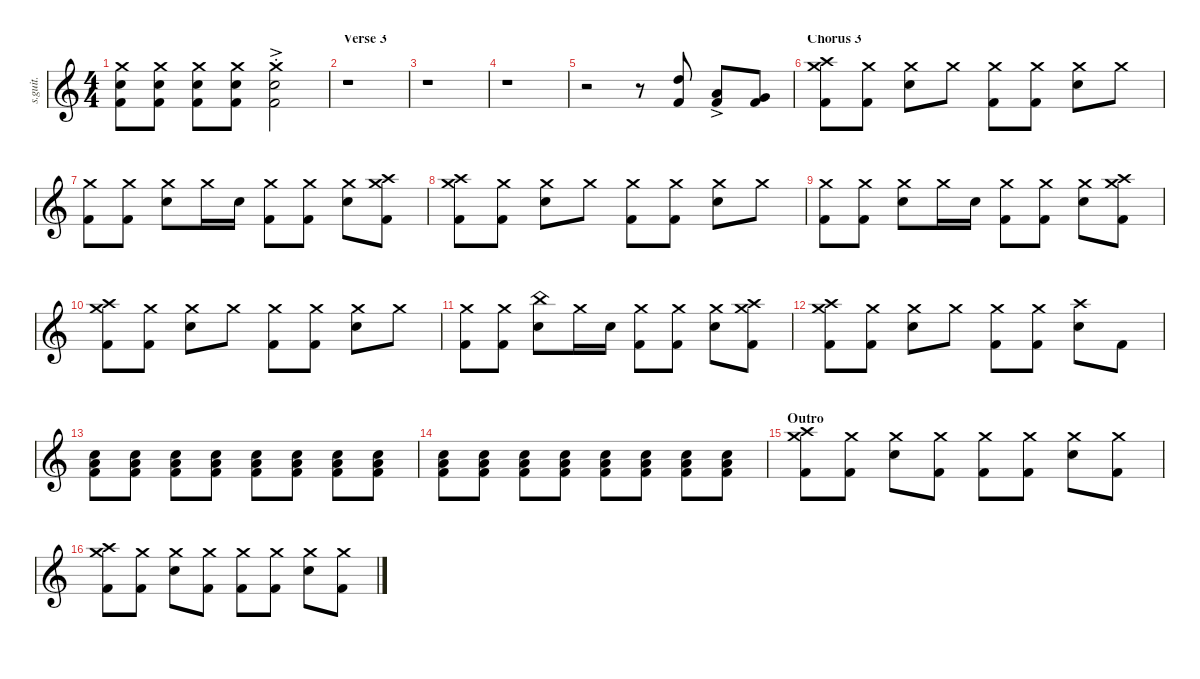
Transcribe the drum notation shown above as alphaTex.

\defaultSystemsLayout 4
\hideDynamics
\bracketExtendMode nobrackets
\track ("Tre Cool" "s.guit.") {instrument percussion}
\staff {score}
\articulation defaults
\ts (4 4)
\tempo (84 hide)
\clef g2
\ks c
("Crash medium (hit)" "Snare (hit) 2" "Kick (hit) 2").8{lyrics (0 "") lyrics (1 "") lyrics (2 "") lyrics (3 "") lyrics (4 "") dy f} ("Crash medium (hit)" "Snare (hit) 2" "Kick (hit) 2").8{lyrics (0 "") lyrics (1 "") lyrics (2 "") lyrics (3 "") lyrics (4 "")} ("Crash medium (hit)" "Snare (hit) 2" "Kick (hit) 2").8{lyrics (0 "") lyrics (1 "") lyrics (2 "") lyrics (3 "") lyrics (4 "")} ("Crash medium (hit)" "Snare (hit) 2" "Kick (hit) 2").8{lyrics (0 "") lyrics (1 "") lyrics (2 "") lyrics (3 "") lyrics (4 "")} ("Snare (hit) 2" "Kick (hit) 2" "Crash medium (hit)"{ac st}).2{lyrics (0 "") lyrics (1 "") lyrics (2 "") lyrics (3 "") lyrics (4 "")} |
\section ("" "Verse 3")
r.1 |
r.1 |
r.1 |
r.2 r.8 ("Kick (hit) 2" "High Tom (hit)").8{lyrics (0 "") lyrics (1 "") lyrics (2 "") lyrics (3 "") lyrics (4 "")} ("Low Tom (hit)"{ac} "Kick (hit) 2").8{lyrics (0 "") lyrics (1 "") lyrics (2 "") lyrics (3 "") lyrics (4 "")} ("Kick (hit) 2" "Very Low Tom (hit)").8{lyrics (0 "") lyrics (1 "") lyrics (2 "") lyrics (3 "") lyrics (4 "")} |
\section ("" "Chorus 3")
("Crash medium (hit)" "Kick (hit) 2" "Crash high (hit)").8{lyrics (0 "") lyrics (1 "") lyrics (2 "") lyrics (3 "") lyrics (4 "")} ("Crash medium (hit)" "Kick (hit) 2").8{lyrics (0 "") lyrics (1 "") lyrics (2 "") lyrics (3 "") lyrics (4 "")} ("Crash medium (hit)" "Snare (hit) 2").8{lyrics (0 "") lyrics (1 "") lyrics (2 "") lyrics (3 "") lyrics (4 "")} "Crash medium (hit)".8{lyrics (0 "") lyrics (1 "") lyrics (2 "") lyrics (3 "") lyrics (4 "")} ("Crash medium (hit)" "Kick (hit) 2").8{lyrics (0 "") lyrics (1 "") lyrics (2 "") lyrics (3 "") lyrics (4 "")} ("Crash medium (hit)" "Kick (hit) 2").8{lyrics (0 "") lyrics (1 "") lyrics (2 "") lyrics (3 "") lyrics (4 "")} ("Crash medium (hit)" "Snare (hit) 2").8{lyrics (0 "") lyrics (1 "") lyrics (2 "") lyrics (3 "") lyrics (4 "")} "Crash medium (hit)".8{lyrics (0 "") lyrics (1 "") lyrics (2 "") lyrics (3 "") lyrics (4 "")} |
("Crash medium (hit)" "Kick (hit) 2").8{lyrics (0 "") lyrics (1 "") lyrics (2 "") lyrics (3 "") lyrics (4 "")} ("Crash medium (hit)" "Kick (hit) 2").8{lyrics (0 "") lyrics (1 "") lyrics (2 "") lyrics (3 "") lyrics (4 "")} ("Crash medium (hit)" "Snare (hit) 2").8{lyrics (0 "") lyrics (1 "") lyrics (2 "") lyrics (3 "") lyrics (4 "")} "Crash medium (hit)".16{lyrics (0 "") lyrics (1 "") lyrics (2 "") lyrics (3 "") lyrics (4 "")} "Snare (hit) 2".16{lyrics (0 "") lyrics (1 "") lyrics (2 "") lyrics (3 "") lyrics (4 "")} ("Crash medium (hit)" "Kick (hit) 2").8{lyrics (0 "") lyrics (1 "") lyrics (2 "") lyrics (3 "") lyrics (4 "")} ("Crash medium (hit)" "Kick (hit) 2").8{lyrics (0 "") lyrics (1 "") lyrics (2 "") lyrics (3 "") lyrics (4 "")} ("Crash medium (hit)" "Snare (hit) 2").8{lyrics (0 "") lyrics (1 "") lyrics (2 "") lyrics (3 "") lyrics (4 "")} ("Crash medium (hit)" "Crash high (hit)" "Kick (hit) 2").8{lyrics (0 "") lyrics (1 "") lyrics (2 "") lyrics (3 "") lyrics (4 "")} |
("Crash medium (hit)" "Crash high (hit)" "Kick (hit) 2").8{lyrics (0 "") lyrics (1 "") lyrics (2 "") lyrics (3 "") lyrics (4 "")} ("Crash medium (hit)" "Kick (hit) 2").8{lyrics (0 "") lyrics (1 "") lyrics (2 "") lyrics (3 "") lyrics (4 "")} ("Crash medium (hit)" "Snare (hit) 2").8{lyrics (0 "") lyrics (1 "") lyrics (2 "") lyrics (3 "") lyrics (4 "")} "Crash medium (hit)".8{lyrics (0 "") lyrics (1 "") lyrics (2 "") lyrics (3 "") lyrics (4 "")} ("Crash medium (hit)" "Kick (hit) 2").8{lyrics (0 "") lyrics (1 "") lyrics (2 "") lyrics (3 "") lyrics (4 "")} ("Crash medium (hit)" "Kick (hit) 2").8{lyrics (0 "") lyrics (1 "") lyrics (2 "") lyrics (3 "") lyrics (4 "")} ("Crash medium (hit)" "Snare (hit) 2").8{lyrics (0 "") lyrics (1 "") lyrics (2 "") lyrics (3 "") lyrics (4 "")} "Crash medium (hit)".8{lyrics (0 "") lyrics (1 "") lyrics (2 "") lyrics (3 "") lyrics (4 "")} |
("Crash medium (hit)" "Kick (hit) 2").8{lyrics (0 "") lyrics (1 "") lyrics (2 "") lyrics (3 "") lyrics (4 "")} ("Crash medium (hit)" "Kick (hit) 2").8{lyrics (0 "") lyrics (1 "") lyrics (2 "") lyrics (3 "") lyrics (4 "")} ("Crash medium (hit)" "Snare (hit) 2").8{lyrics (0 "") lyrics (1 "") lyrics (2 "") lyrics (3 "") lyrics (4 "")} "Crash medium (hit)".16{lyrics (0 "") lyrics (1 "") lyrics (2 "") lyrics (3 "") lyrics (4 "")} "Snare (hit) 2".16{lyrics (0 "") lyrics (1 "") lyrics (2 "") lyrics (3 "") lyrics (4 "")} ("Crash medium (hit)" "Kick (hit) 2").8{lyrics (0 "") lyrics (1 "") lyrics (2 "") lyrics (3 "") lyrics (4 "")} ("Crash medium (hit)" "Kick (hit) 2").8{lyrics (0 "") lyrics (1 "") lyrics (2 "") lyrics (3 "") lyrics (4 "")} ("Crash medium (hit)" "Snare (hit) 2").8{lyrics (0 "") lyrics (1 "") lyrics (2 "") lyrics (3 "") lyrics (4 "")} ("Crash medium (hit)" "Crash high (hit)" "Kick (hit) 2").8{lyrics (0 "") lyrics (1 "") lyrics (2 "") lyrics (3 "") lyrics (4 "")} |
("Crash medium (hit)" "Crash high (hit)" "Kick (hit) 2").8{lyrics (0 "") lyrics (1 "") lyrics (2 "") lyrics (3 "") lyrics (4 "")} ("Crash medium (hit)" "Kick (hit) 2").8{lyrics (0 "") lyrics (1 "") lyrics (2 "") lyrics (3 "") lyrics (4 "")} ("Crash medium (hit)" "Snare (hit) 2").8{lyrics (0 "") lyrics (1 "") lyrics (2 "") lyrics (3 "") lyrics (4 "")} "Crash medium (hit)".8{lyrics (0 "") lyrics (1 "") lyrics (2 "") lyrics (3 "") lyrics (4 "")} ("Crash medium (hit)" "Kick (hit) 2").8{lyrics (0 "") lyrics (1 "") lyrics (2 "") lyrics (3 "") lyrics (4 "")} ("Crash medium (hit)" "Kick (hit) 2").8{lyrics (0 "") lyrics (1 "") lyrics (2 "") lyrics (3 "") lyrics (4 "")} ("Crash medium (hit)" "Snare (hit) 2").8{lyrics (0 "") lyrics (1 "") lyrics (2 "") lyrics (3 "") lyrics (4 "")} "Crash medium (hit)".8{lyrics (0 "") lyrics (1 "") lyrics (2 "") lyrics (3 "") lyrics (4 "")} |
("Crash medium (hit)" "Kick (hit) 2").8{lyrics (0 "") lyrics (1 "") lyrics (2 "") lyrics (3 "") lyrics (4 "")} ("Crash medium (hit)" "Kick (hit) 2").8{lyrics (0 "") lyrics (1 "") lyrics (2 "") lyrics (3 "") lyrics (4 "")} ("Snare (hit) 2" "China (hit)").8{lyrics (0 "") lyrics (1 "") lyrics (2 "") lyrics (3 "") lyrics (4 "")} "Crash medium (hit)".16{lyrics (0 "") lyrics (1 "") lyrics (2 "") lyrics (3 "") lyrics (4 "")} "Snare (hit) 2".16{lyrics (0 "") lyrics (1 "") lyrics (2 "") lyrics (3 "") lyrics (4 "")} ("Crash medium (hit)" "Kick (hit) 2").8{lyrics (0 "") lyrics (1 "") lyrics (2 "") lyrics (3 "") lyrics (4 "")} ("Crash medium (hit)" "Kick (hit) 2").8{lyrics (0 "") lyrics (1 "") lyrics (2 "") lyrics (3 "") lyrics (4 "")} ("Crash medium (hit)" "Snare (hit) 2").8{lyrics (0 "") lyrics (1 "") lyrics (2 "") lyrics (3 "") lyrics (4 "")} ("Crash medium (hit)" "Crash high (hit)" "Kick (hit) 2").8{lyrics (0 "") lyrics (1 "") lyrics (2 "") lyrics (3 "") lyrics (4 "")} |
("Crash medium (hit)" "Crash high (hit)" "Kick (hit) 2").8{lyrics (0 "") lyrics (1 "") lyrics (2 "") lyrics (3 "") lyrics (4 "")} ("Crash medium (hit)" "Kick (hit) 2").8{lyrics (0 "") lyrics (1 "") lyrics (2 "") lyrics (3 "") lyrics (4 "")} ("Crash medium (hit)" "Snare (hit) 2").8{lyrics (0 "") lyrics (1 "") lyrics (2 "") lyrics (3 "") lyrics (4 "")} "Crash medium (hit)".8{lyrics (0 "") lyrics (1 "") lyrics (2 "") lyrics (3 "") lyrics (4 "")} ("Crash medium (hit)" "Kick (hit) 2").8{lyrics (0 "") lyrics (1 "") lyrics (2 "") lyrics (3 "") lyrics (4 "")} ("Crash medium (hit)" "Kick (hit) 2").8{lyrics (0 "") lyrics (1 "") lyrics (2 "") lyrics (3 "") lyrics (4 "")} ("Crash high (hit)" "Snare (hit) 2").8{lyrics (0 "") lyrics (1 "") lyrics (2 "") lyrics (3 "") lyrics (4 "")} "Kick (hit) 2".8{lyrics (0 "") lyrics (1 "") lyrics (2 "") lyrics (3 "") lyrics (4 "")} |
("Snare (hit) 2" "Low Tom (hit)" "Kick (hit) 2").8{lyrics (0 "") lyrics (1 "") lyrics (2 "") lyrics (3 "") lyrics (4 "")} ("Snare (hit) 2" "Low Tom (hit)" "Kick (hit) 2").8{lyrics (0 "") lyrics (1 "") lyrics (2 "") lyrics (3 "") lyrics (4 "")} ("Snare (hit) 2" "Low Tom (hit)" "Kick (hit) 2").8{lyrics (0 "") lyrics (1 "") lyrics (2 "") lyrics (3 "") lyrics (4 "")} ("Snare (hit) 2" "Low Tom (hit)" "Kick (hit) 2").8{lyrics (0 "") lyrics (1 "") lyrics (2 "") lyrics (3 "") lyrics (4 "")} ("Snare (hit) 2" "Low Tom (hit)" "Kick (hit) 2").8{lyrics (0 "") lyrics (1 "") lyrics (2 "") lyrics (3 "") lyrics (4 "")} ("Snare (hit) 2" "Low Tom (hit)" "Kick (hit) 2").8{lyrics (0 "") lyrics (1 "") lyrics (2 "") lyrics (3 "") lyrics (4 "")} ("Snare (hit) 2" "Low Tom (hit)" "Kick (hit) 2").8{lyrics (0 "") lyrics (1 "") lyrics (2 "") lyrics (3 "") lyrics (4 "")} ("Snare (hit) 2" "Low Tom (hit)" "Kick (hit) 2").8{lyrics (0 "") lyrics (1 "") lyrics (2 "") lyrics (3 "") lyrics (4 "")} |
("Snare (hit) 2" "Low Tom (hit)" "Kick (hit) 2").8{lyrics (0 "") lyrics (1 "") lyrics (2 "") lyrics (3 "") lyrics (4 "")} ("Snare (hit) 2" "Low Tom (hit)" "Kick (hit) 2").8{lyrics (0 "") lyrics (1 "") lyrics (2 "") lyrics (3 "") lyrics (4 "")} ("Snare (hit) 2" "Low Tom (hit)" "Kick (hit) 2").8{lyrics (0 "") lyrics (1 "") lyrics (2 "") lyrics (3 "") lyrics (4 "")} ("Snare (hit) 2" "Low Tom (hit)" "Kick (hit) 2").8{lyrics (0 "") lyrics (1 "") lyrics (2 "") lyrics (3 "") lyrics (4 "")} ("Snare (hit) 2" "Low Tom (hit)" "Kick (hit) 2").8{lyrics (0 "") lyrics (1 "") lyrics (2 "") lyrics (3 "") lyrics (4 "")} ("Snare (hit) 2" "Low Tom (hit)" "Kick (hit) 2").8{lyrics (0 "") lyrics (1 "") lyrics (2 "") lyrics (3 "") lyrics (4 "")} ("Snare (hit) 2" "Low Tom (hit)" "Kick (hit) 2").8{lyrics (0 "") lyrics (1 "") lyrics (2 "") lyrics (3 "") lyrics (4 "")} ("Snare (hit) 2" "Low Tom (hit)" "Kick (hit) 2").8{lyrics (0 "") lyrics (1 "") lyrics (2 "") lyrics (3 "") lyrics (4 "")} |
\section ("" "Outro")
("Kick (hit) 2" "Crash medium (hit)" "Crash high (hit)").8{lyrics (0 "") lyrics (1 "") lyrics (2 "") lyrics (3 "") lyrics (4 "")} ("Kick (hit) 2" "Crash medium (hit)").8{lyrics (0 "") lyrics (1 "") lyrics (2 "") lyrics (3 "") lyrics (4 "")} ("Snare (hit) 2" "Crash medium (hit)").8{lyrics (0 "") lyrics (1 "") lyrics (2 "") lyrics (3 "") lyrics (4 "")} ("Kick (hit) 2" "Crash medium (hit)").8{lyrics (0 "") lyrics (1 "") lyrics (2 "") lyrics (3 "") lyrics (4 "")} ("Kick (hit) 2" "Crash medium (hit)").8{lyrics (0 "") lyrics (1 "") lyrics (2 "") lyrics (3 "") lyrics (4 "")} ("Kick (hit) 2" "Crash medium (hit)").8{lyrics (0 "") lyrics (1 "") lyrics (2 "") lyrics (3 "") lyrics (4 "")} ("Snare (hit) 2" "Crash medium (hit)").8{lyrics (0 "") lyrics (1 "") lyrics (2 "") lyrics (3 "") lyrics (4 "")} ("Kick (hit) 2" "Crash medium (hit)").8{lyrics (0 "") lyrics (1 "") lyrics (2 "") lyrics (3 "") lyrics (4 "")} |
("Kick (hit) 2" "Crash medium (hit)" "Crash high (hit)").8{lyrics (0 "") lyrics (1 "") lyrics (2 "") lyrics (3 "") lyrics (4 "")} ("Kick (hit) 2" "Crash medium (hit)").8{lyrics (0 "") lyrics (1 "") lyrics (2 "") lyrics (3 "") lyrics (4 "")} ("Snare (hit) 2" "Crash medium (hit)").8{lyrics (0 "") lyrics (1 "") lyrics (2 "") lyrics (3 "") lyrics (4 "")} ("Kick (hit) 2" "Crash medium (hit)").8{lyrics (0 "") lyrics (1 "") lyrics (2 "") lyrics (3 "") lyrics (4 "")} ("Kick (hit) 2" "Crash medium (hit)").8{lyrics (0 "") lyrics (1 "") lyrics (2 "") lyrics (3 "") lyrics (4 "")} ("Kick (hit) 2" "Crash medium (hit)").8{lyrics (0 "") lyrics (1 "") lyrics (2 "") lyrics (3 "") lyrics (4 "")} ("Snare (hit) 2" "Crash medium (hit)").8{lyrics (0 "") lyrics (1 "") lyrics (2 "") lyrics (3 "") lyrics (4 "")} ("Kick (hit) 2" "Crash medium (hit)").8{lyrics (0 "") lyrics (1 "") lyrics (2 "") lyrics (3 "") lyrics (4 "")}
